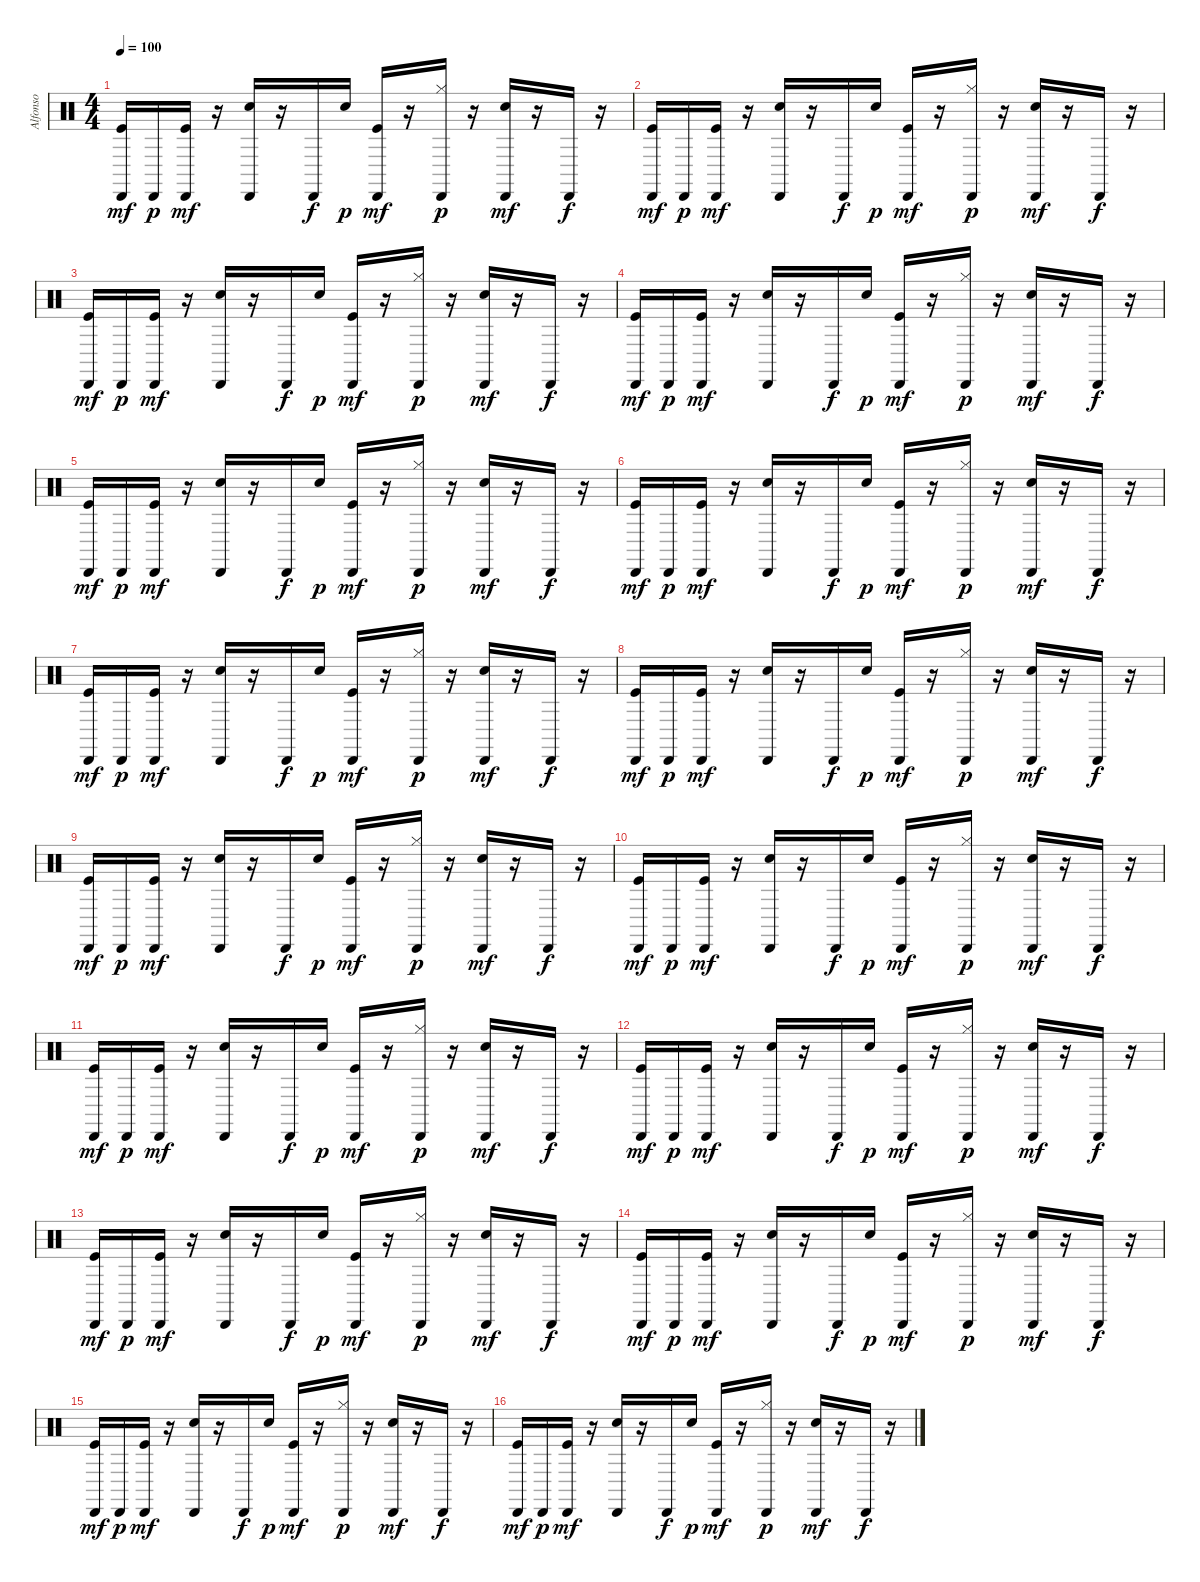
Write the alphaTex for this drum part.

\track ("Alfonso" "Alfonso") {instrument percussion}
\staff {score}
\articulation defaults
\ts (4 4)
\tempo 100
\clef neutral
\ks c
("Kick (hit)" "Cabasa (hit)").16{dy mf} "Cabasa (hit)".16{dy p} ("Kick (hit)" "Cabasa (hit)").16{dy mf} r.16 ("Electric Snare (hit)" "Cabasa (hit)").16 r.16 "Cabasa (hit)".16{dy f} "Electric Snare (hit)".16{dy p} ("Kick (hit)" "Cabasa (hit)").16{dy mf} r.16 ("Hi-Hat (closed)" "Cabasa (hit)").16{dy p} r.16 ("Electric Snare (hit)" "Cabasa (hit)").16{dy mf} r.16 "Cabasa (hit)".16{dy f} r.16 |
("Kick (hit)" "Cabasa (hit)").16{dy mf} "Cabasa (hit)".16{dy p} ("Kick (hit)" "Cabasa (hit)").16{dy mf} r.16 ("Electric Snare (hit)" "Cabasa (hit)").16 r.16 "Cabasa (hit)".16{dy f} "Electric Snare (hit)".16{dy p} ("Kick (hit)" "Cabasa (hit)").16{dy mf} r.16 ("Hi-Hat (closed)" "Cabasa (hit)").16{dy p} r.16 ("Electric Snare (hit)" "Cabasa (hit)").16{dy mf} r.16 "Cabasa (hit)".16{dy f} r.16 |
("Kick (hit)" "Cabasa (hit)").16{dy mf} "Cabasa (hit)".16{dy p} ("Kick (hit)" "Cabasa (hit)").16{dy mf} r.16 ("Electric Snare (hit)" "Cabasa (hit)").16 r.16 "Cabasa (hit)".16{dy f} "Electric Snare (hit)".16{dy p} ("Kick (hit)" "Cabasa (hit)").16{dy mf} r.16 ("Hi-Hat (closed)" "Cabasa (hit)").16{dy p} r.16 ("Electric Snare (hit)" "Cabasa (hit)").16{dy mf} r.16 "Cabasa (hit)".16{dy f} r.16 |
("Kick (hit)" "Cabasa (hit)").16{dy mf} "Cabasa (hit)".16{dy p} ("Kick (hit)" "Cabasa (hit)").16{dy mf} r.16 ("Electric Snare (hit)" "Cabasa (hit)").16 r.16 "Cabasa (hit)".16{dy f} "Electric Snare (hit)".16{dy p} ("Kick (hit)" "Cabasa (hit)").16{dy mf} r.16 ("Hi-Hat (closed)" "Cabasa (hit)").16{dy p} r.16 ("Electric Snare (hit)" "Cabasa (hit)").16{dy mf} r.16 "Cabasa (hit)".16{dy f} r.16 |
("Kick (hit)" "Cabasa (hit)").16{dy mf} "Cabasa (hit)".16{dy p} ("Kick (hit)" "Cabasa (hit)").16{dy mf} r.16 ("Electric Snare (hit)" "Cabasa (hit)").16 r.16 "Cabasa (hit)".16{dy f} "Electric Snare (hit)".16{dy p} ("Kick (hit)" "Cabasa (hit)").16{dy mf} r.16 ("Hi-Hat (closed)" "Cabasa (hit)").16{dy p} r.16 ("Electric Snare (hit)" "Cabasa (hit)").16{dy mf} r.16 "Cabasa (hit)".16{dy f} r.16 |
("Kick (hit)" "Cabasa (hit)").16{dy mf} "Cabasa (hit)".16{dy p} ("Kick (hit)" "Cabasa (hit)").16{dy mf} r.16 ("Electric Snare (hit)" "Cabasa (hit)").16 r.16 "Cabasa (hit)".16{dy f} "Electric Snare (hit)".16{dy p} ("Kick (hit)" "Cabasa (hit)").16{dy mf} r.16 ("Hi-Hat (closed)" "Cabasa (hit)").16{dy p} r.16 ("Electric Snare (hit)" "Cabasa (hit)").16{dy mf} r.16 "Cabasa (hit)".16{dy f} r.16 |
("Kick (hit)" "Cabasa (hit)").16{dy mf} "Cabasa (hit)".16{dy p} ("Kick (hit)" "Cabasa (hit)").16{dy mf} r.16 ("Electric Snare (hit)" "Cabasa (hit)").16 r.16 "Cabasa (hit)".16{dy f} "Electric Snare (hit)".16{dy p} ("Kick (hit)" "Cabasa (hit)").16{dy mf} r.16 ("Hi-Hat (closed)" "Cabasa (hit)").16{dy p} r.16 ("Electric Snare (hit)" "Cabasa (hit)").16{dy mf} r.16 "Cabasa (hit)".16{dy f} r.16 |
("Kick (hit)" "Cabasa (hit)").16{dy mf} "Cabasa (hit)".16{dy p} ("Kick (hit)" "Cabasa (hit)").16{dy mf} r.16 ("Electric Snare (hit)" "Cabasa (hit)").16 r.16 "Cabasa (hit)".16{dy f} "Electric Snare (hit)".16{dy p} ("Kick (hit)" "Cabasa (hit)").16{dy mf} r.16 ("Hi-Hat (closed)" "Cabasa (hit)").16{dy p} r.16 ("Electric Snare (hit)" "Cabasa (hit)").16{dy mf} r.16 "Cabasa (hit)".16{dy f} r.16 |
("Kick (hit)" "Cabasa (hit)").16{dy mf} "Cabasa (hit)".16{dy p} ("Kick (hit)" "Cabasa (hit)").16{dy mf} r.16 ("Electric Snare (hit)" "Cabasa (hit)").16 r.16 "Cabasa (hit)".16{dy f} "Electric Snare (hit)".16{dy p} ("Kick (hit)" "Cabasa (hit)").16{dy mf} r.16 ("Hi-Hat (closed)" "Cabasa (hit)").16{dy p} r.16 ("Electric Snare (hit)" "Cabasa (hit)").16{dy mf} r.16 "Cabasa (hit)".16{dy f} r.16 |
("Kick (hit)" "Cabasa (hit)").16{dy mf} "Cabasa (hit)".16{dy p} ("Kick (hit)" "Cabasa (hit)").16{dy mf} r.16 ("Electric Snare (hit)" "Cabasa (hit)").16 r.16 "Cabasa (hit)".16{dy f} "Electric Snare (hit)".16{dy p} ("Kick (hit)" "Cabasa (hit)").16{dy mf} r.16 ("Hi-Hat (closed)" "Cabasa (hit)").16{dy p} r.16 ("Electric Snare (hit)" "Cabasa (hit)").16{dy mf} r.16 "Cabasa (hit)".16{dy f} r.16 |
("Kick (hit)" "Cabasa (hit)").16{dy mf} "Cabasa (hit)".16{dy p} ("Kick (hit)" "Cabasa (hit)").16{dy mf} r.16 ("Electric Snare (hit)" "Cabasa (hit)").16 r.16 "Cabasa (hit)".16{dy f} "Electric Snare (hit)".16{dy p} ("Kick (hit)" "Cabasa (hit)").16{dy mf} r.16 ("Hi-Hat (closed)" "Cabasa (hit)").16{dy p} r.16 ("Electric Snare (hit)" "Cabasa (hit)").16{dy mf} r.16 "Cabasa (hit)".16{dy f} r.16 |
("Kick (hit)" "Cabasa (hit)").16{dy mf} "Cabasa (hit)".16{dy p} ("Kick (hit)" "Cabasa (hit)").16{dy mf} r.16 ("Electric Snare (hit)" "Cabasa (hit)").16 r.16 "Cabasa (hit)".16{dy f} "Electric Snare (hit)".16{dy p} ("Kick (hit)" "Cabasa (hit)").16{dy mf} r.16 ("Hi-Hat (closed)" "Cabasa (hit)").16{dy p} r.16 ("Electric Snare (hit)" "Cabasa (hit)").16{dy mf} r.16 "Cabasa (hit)".16{dy f} r.16 |
("Kick (hit)" "Cabasa (hit)").16{dy mf} "Cabasa (hit)".16{dy p} ("Kick (hit)" "Cabasa (hit)").16{dy mf} r.16 ("Electric Snare (hit)" "Cabasa (hit)").16 r.16 "Cabasa (hit)".16{dy f} "Electric Snare (hit)".16{dy p} ("Kick (hit)" "Cabasa (hit)").16{dy mf} r.16 ("Hi-Hat (closed)" "Cabasa (hit)").16{dy p} r.16 ("Electric Snare (hit)" "Cabasa (hit)").16{dy mf} r.16 "Cabasa (hit)".16{dy f} r.16 |
("Kick (hit)" "Cabasa (hit)").16{dy mf} "Cabasa (hit)".16{dy p} ("Kick (hit)" "Cabasa (hit)").16{dy mf} r.16 ("Electric Snare (hit)" "Cabasa (hit)").16 r.16 "Cabasa (hit)".16{dy f} "Electric Snare (hit)".16{dy p} ("Kick (hit)" "Cabasa (hit)").16{dy mf} r.16 ("Hi-Hat (closed)" "Cabasa (hit)").16{dy p} r.16 ("Electric Snare (hit)" "Cabasa (hit)").16{dy mf} r.16 "Cabasa (hit)".16{dy f} r.16 |
("Kick (hit)" "Cabasa (hit)").16{dy mf} "Cabasa (hit)".16{dy p} ("Kick (hit)" "Cabasa (hit)").16{dy mf} r.16 ("Electric Snare (hit)" "Cabasa (hit)").16 r.16 "Cabasa (hit)".16{dy f} "Electric Snare (hit)".16{dy p} ("Kick (hit)" "Cabasa (hit)").16{dy mf} r.16 ("Hi-Hat (closed)" "Cabasa (hit)").16{dy p} r.16 ("Electric Snare (hit)" "Cabasa (hit)").16{dy mf} r.16 "Cabasa (hit)".16{dy f} r.16 |
("Kick (hit)" "Cabasa (hit)").16{dy mf} "Cabasa (hit)".16{dy p} ("Kick (hit)" "Cabasa (hit)").16{dy mf} r.16 ("Electric Snare (hit)" "Cabasa (hit)").16 r.16 "Cabasa (hit)".16{dy f} "Electric Snare (hit)".16{dy p} ("Kick (hit)" "Cabasa (hit)").16{dy mf} r.16 ("Hi-Hat (closed)" "Cabasa (hit)").16{dy p} r.16 ("Electric Snare (hit)" "Cabasa (hit)").16{dy mf} r.16 "Cabasa (hit)".16{dy f} r.16
